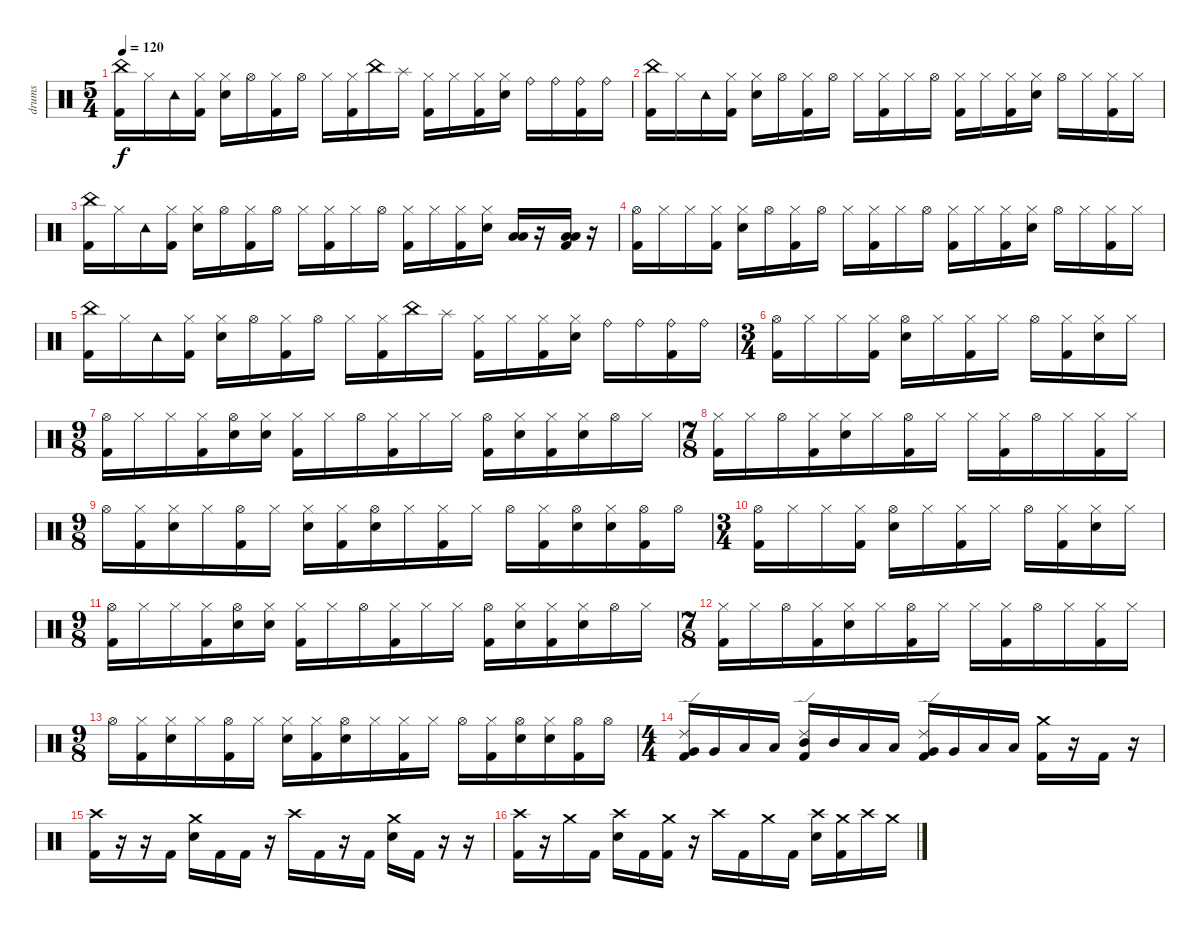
\track ("drums" "drums") {instrument percussion}
\staff {score}
\articulation defaults
\ts (5 4)
\tempo 120
\clef neutral
\ks c
("China (hit)" "Kick (hit) 2").16{dy f volume 13} "Hi-Hat (closed)".16 "Tambourine (hit)".16 ("Hi-Hat (closed)" "Kick (hit) 2").16 ("Hi-Hat (closed)" "Snare (hit) 2").16 "Hi-Hat (open)".16 ("Hi-Hat (closed)" "Kick (hit) 2").16 "Hi-Hat (open)".16 "Hi-Hat (closed)".16 ("Hi-Hat (closed)" "Kick (hit) 2").16 "China (hit)".16 "Splash (hit)".16 ("Hi-Hat (closed)" "Kick (hit) 2").16 "Hi-Hat (closed)".16 ("Hi-Hat (closed)" "Kick (hit) 2").16 ("Hi-Hat (closed)" "Snare (hit) 2").16 "Ride (bell)".16 "Ride (bell)".16 ("Ride (bell)" "Kick (hit) 2").16 "Ride (bell)".16 |
("China (hit)" "Kick (hit) 2").16{volume 13} "Hi-Hat (closed)".16 "Tambourine (hit)".16 ("Hi-Hat (closed)" "Kick (hit) 2").16 ("Hi-Hat (closed)" "Snare (hit) 2").16 "Hi-Hat (open)".16 ("Hi-Hat (closed)" "Kick (hit) 2").16 "Hi-Hat (open)".16 "Hi-Hat (closed)".16 ("Hi-Hat (closed)" "Kick (hit) 2").16 "Hi-Hat (closed)".16 "Hi-Hat (open)".16 ("Hi-Hat (closed)" "Kick (hit) 2").16 "Hi-Hat (closed)".16 ("Hi-Hat (closed)" "Kick (hit) 2").16 ("Hi-Hat (closed)" "Snare (hit) 2").16 "Hi-Hat (open)".16 "Hi-Hat (closed)".16 ("Hi-Hat (closed)" "Kick (hit) 2").16 "Hi-Hat (closed)".16 |
("China (hit)" "Kick (hit) 2").16{volume 13} "Hi-Hat (closed)".16 "Tambourine (hit)".16 ("Hi-Hat (closed)" "Kick (hit) 2").16 ("Hi-Hat (closed)" "Snare (hit) 2").16 "Hi-Hat (open)".16 ("Hi-Hat (closed)" "Kick (hit) 2").16 "Hi-Hat (open)".16 "Hi-Hat (closed)".16 ("Hi-Hat (closed)" "Kick (hit) 2").16 "Hi-Hat (closed)".16 "Hi-Hat (open)".16 ("Hi-Hat (closed)" "Kick (hit) 2").16 "Hi-Hat (closed)".16 ("Hi-Hat (closed)" "Kick (hit) 2").16 ("Hi-Hat (closed)" "Snare (hit) 2").16 ("Low Tom (hit)" "Low Tom (hit)").16 r.16 ("Low Floor Tom (hit)" "Low Floor Tom (hit)" "Kick (hit) 2").16 r.16 |
("Hi-Hat (open)" "Kick (hit) 2").16{volume 13} "Hi-Hat (closed)".16 "Hi-Hat (closed)".16 ("Hi-Hat (closed)" "Kick (hit) 2").16 ("Hi-Hat (closed)" "Snare (hit) 2").16 "Hi-Hat (open)".16 ("Hi-Hat (closed)" "Kick (hit) 2").16 "Hi-Hat (open)".16 "Hi-Hat (closed)".16 ("Hi-Hat (closed)" "Kick (hit) 2").16 "Hi-Hat (closed)".16 "Hi-Hat (open)".16 ("Hi-Hat (closed)" "Kick (hit) 2").16 "Hi-Hat (closed)".16 ("Hi-Hat (closed)" "Kick (hit) 2").16 ("Hi-Hat (closed)" "Snare (hit) 2").16 "Hi-Hat (open)".16 "Hi-Hat (closed)".16 ("Hi-Hat (closed)" "Kick (hit) 2").16 "Hi-Hat (closed)".16 |
("China (hit)" "Kick (hit) 2").16{volume 13} "Hi-Hat (closed)".16 "Tambourine (hit)".16 ("Hi-Hat (closed)" "Kick (hit) 2").16 ("Hi-Hat (closed)" "Snare (hit) 2").16 "Hi-Hat (open)".16 ("Hi-Hat (closed)" "Kick (hit) 2").16 "Hi-Hat (open)".16 "Hi-Hat (closed)".16 ("Hi-Hat (closed)" "Kick (hit) 2").16 "China (hit)".16 "Splash (hit)".16 ("Hi-Hat (closed)" "Kick (hit) 2").16 "Hi-Hat (closed)".16 ("Hi-Hat (closed)" "Kick (hit) 2").16 ("Hi-Hat (closed)" "Snare (hit) 2").16 "Ride (bell)".16 "Ride (bell)".16 ("Ride (bell)" "Kick (hit) 2").16 "Ride (bell)".16 |
\ts (3 4)
("Hi-Hat (open)" "Kick (hit) 2").16 "Hi-Hat (closed)".16 "Hi-Hat (closed)".16 ("Hi-Hat (closed)" "Kick (hit) 2").16 ("Hi-Hat (open)" "Snare (hit) 2").16 "Hi-Hat (closed)".16 ("Hi-Hat (closed)" "Kick (hit) 2").16 "Hi-Hat (closed)".16 "Hi-Hat (open)".16 ("Hi-Hat (closed)" "Kick (hit) 2").16 ("Hi-Hat (closed)" "Snare (hit) 2").16 "Hi-Hat (closed)".16 |
\ts (9 8)
("Hi-Hat (open)" "Kick (hit) 2").16 "Hi-Hat (closed)".16 "Hi-Hat (closed)".16 ("Hi-Hat (closed)" "Kick (hit) 2").16 ("Hi-Hat (open)" "Snare (hit) 2").16 ("Hi-Hat (closed)" "Snare (hit) 2").16 ("Hi-Hat (closed)" "Kick (hit) 2").16 "Hi-Hat (closed)".16 "Hi-Hat (open)".16 ("Hi-Hat (closed)" "Kick (hit) 2").16 "Hi-Hat (closed)".16 "Hi-Hat (closed)".16 ("Hi-Hat (open)" "Kick (hit) 2").16 ("Hi-Hat (closed)" "Snare (hit) 2").16 ("Hi-Hat (closed)" "Kick (hit) 2").16 ("Hi-Hat (closed)" "Snare (hit) 2").16 "Hi-Hat (open)".16 "Hi-Hat (closed)".16 |
\ts (7 8)
("Hi-Hat (closed)" "Kick (hit) 2").16 "Hi-Hat (closed)".16 "Hi-Hat (open)".16 ("Hi-Hat (closed)" "Kick (hit) 2").16 ("Hi-Hat (closed)" "Snare (hit) 2").16 "Hi-Hat (closed)".16 ("Hi-Hat (open)" "Kick (hit) 2").16 "Hi-Hat (closed)".16 "Hi-Hat (closed)".16 ("Hi-Hat (closed)" "Kick (hit) 2").16 "Hi-Hat (open)".16 "Hi-Hat (closed)".16 ("Hi-Hat (closed)" "Kick (hit) 2").16 "Hi-Hat (closed)".16 |
\ts (9 8)
"Hi-Hat (open)".16 ("Hi-Hat (closed)" "Kick (hit) 2").16 ("Hi-Hat (closed)" "Snare (hit) 2").16 "Hi-Hat (closed)".16 ("Hi-Hat (open)" "Kick (hit) 2").16 "Hi-Hat (closed)".16 ("Hi-Hat (closed)" "Snare (hit) 2").16 ("Hi-Hat (closed)" "Kick (hit) 2").16 ("Hi-Hat (open)" "Snare (hit) 2").16 "Hi-Hat (closed)".16 ("Hi-Hat (closed)" "Kick (hit) 2").16 "Hi-Hat (closed)".16 "Hi-Hat (open)".16 ("Hi-Hat (closed)" "Kick (hit) 2").16 ("Hi-Hat (open)" "Snare (hit) 2").16 ("Hi-Hat (closed)" "Snare (hit) 2").16 ("Hi-Hat (open)" "Kick (hit) 2").16 "Hi-Hat (open)".16 |
\ts (3 4)
("Hi-Hat (open)" "Kick (hit) 2").16 "Hi-Hat (closed)".16 "Hi-Hat (closed)".16 ("Hi-Hat (closed)" "Kick (hit) 2").16 ("Hi-Hat (open)" "Snare (hit) 2").16 "Hi-Hat (closed)".16 ("Hi-Hat (closed)" "Kick (hit) 2").16 "Hi-Hat (closed)".16 "Hi-Hat (open)".16 ("Hi-Hat (closed)" "Kick (hit) 2").16 ("Hi-Hat (closed)" "Snare (hit) 2").16 "Hi-Hat (closed)".16 |
\ts (9 8)
("Hi-Hat (open)" "Kick (hit) 2").16 "Hi-Hat (closed)".16 "Hi-Hat (closed)".16 ("Hi-Hat (closed)" "Kick (hit) 2").16 ("Hi-Hat (open)" "Snare (hit) 2").16 ("Hi-Hat (closed)" "Snare (hit) 2").16 ("Hi-Hat (closed)" "Kick (hit) 2").16 "Hi-Hat (closed)".16 "Hi-Hat (open)".16 ("Hi-Hat (closed)" "Kick (hit) 2").16 "Hi-Hat (closed)".16 "Hi-Hat (closed)".16 ("Hi-Hat (open)" "Kick (hit) 2").16 ("Hi-Hat (closed)" "Snare (hit) 2").16 ("Hi-Hat (closed)" "Kick (hit) 2").16 ("Hi-Hat (closed)" "Snare (hit) 2").16 "Hi-Hat (open)".16 "Hi-Hat (closed)".16 |
\ts (7 8)
("Hi-Hat (closed)" "Kick (hit) 2").16 "Hi-Hat (closed)".16 "Hi-Hat (open)".16 ("Hi-Hat (closed)" "Kick (hit) 2").16 ("Hi-Hat (closed)" "Snare (hit) 2").16 "Hi-Hat (closed)".16 ("Hi-Hat (open)" "Kick (hit) 2").16 "Hi-Hat (closed)".16 "Hi-Hat (closed)".16 ("Hi-Hat (closed)" "Kick (hit) 2").16 "Hi-Hat (open)".16 "Hi-Hat (closed)".16 ("Hi-Hat (closed)" "Kick (hit) 2").16 "Hi-Hat (closed)".16 |
\ts (9 8)
"Hi-Hat (open)".16 ("Hi-Hat (closed)" "Kick (hit) 2").16 ("Hi-Hat (closed)" "Snare (hit) 2").16 "Hi-Hat (closed)".16 ("Hi-Hat (open)" "Kick (hit) 2").16 "Hi-Hat (closed)".16 ("Hi-Hat (closed)" "Snare (hit) 2").16 ("Hi-Hat (closed)" "Kick (hit) 2").16 ("Hi-Hat (open)" "Snare (hit) 2").16 "Hi-Hat (closed)".16 ("Hi-Hat (closed)" "Kick (hit) 2").16 "Hi-Hat (closed)".16 "Hi-Hat (open)".16 ("Hi-Hat (closed)" "Kick (hit) 2").16 ("Hi-Hat (open)" "Snare (hit) 2").16 ("Hi-Hat (closed)" "Snare (hit) 2").16 ("Hi-Hat (open)" "Kick (hit) 2").16 "Hi-Hat (open)".16 |
\ts (4 4)
("Ride (edge) 2" "Very Low Tom (hit)" "Kick (hit) 2").16 "Very Low Tom (hit)".16 "Low Tom (hit)".16 "Low Tom (hit)".16 ("Ride (edge) 2" "Mid Tom (hit)" "Kick (hit) 2").16 "Mid Tom (hit)".16 "Low Tom (hit)".16 "Low Tom (hit)".16 ("Ride (edge) 2" "Very Low Tom (hit)" "Kick (hit) 2").16 "Very Low Tom (hit)".16 "Low Floor Tom (hit)".16 "Low Floor Tom (hit)".16 ("Crash medium (hit)" "Kick (hit) 2").16 r.16 "Kick (hit) 2".16 r.16 |
("Crash high (hit)" "Kick (hit) 2").16 r.16 r.16 "Kick (hit) 2".16 ("Crash medium (hit)" "Snare (hit) 2").16 "Kick (hit) 2".16 "Kick (hit) 2".16 r.16 "Crash high (hit)".16 "Kick (hit) 2".16 r.16 "Kick (hit) 2".16 ("Crash medium (hit)" "Snare (hit) 2").16 "Kick (hit) 2".16 r.16 r.16 |
("Crash high (hit)" "Kick (hit) 2").16 r.16 "Crash medium (hit)".16 "Kick (hit) 2".16 ("Crash high (hit)" "Snare (hit) 2").16 "Kick (hit) 2".16 ("Crash medium (hit)" "Kick (hit) 2").16 r.16 "Crash high (hit)".16 "Kick (hit) 2".16 "Crash medium (hit)".16 "Kick (hit) 2".16 ("Crash high (hit)" "Snare (hit) 2").16 ("Crash medium (hit)" "Kick (hit) 2").16 "Crash high (hit)".16 "Crash medium (hit)".16
